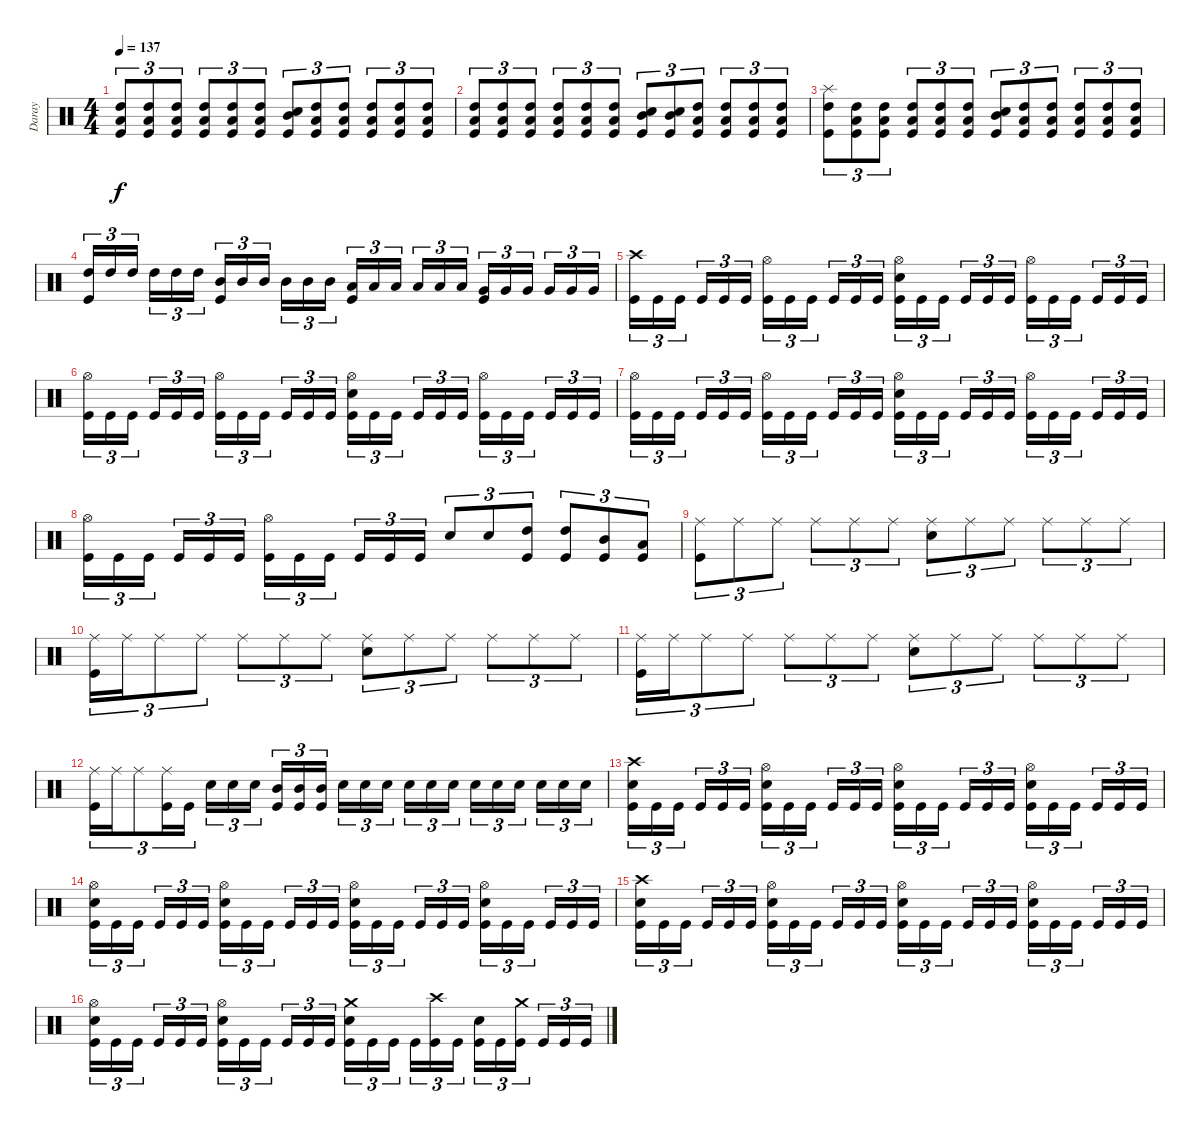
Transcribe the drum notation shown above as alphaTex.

\track ("Daray" "Daray") {instrument percussion}
\staff {score}
\articulation defaults
\ts (4 4)
\tempo 137
\clef neutral
\ks c
("High Tom (hit)" "Low Tom (hit)" "Kick (hit)").8{tu (3 2) dy f} ("High Tom (hit)" "Low Tom (hit)" "Kick (hit)").8{tu (3 2)} ("High Tom (hit)" "Low Tom (hit)" "Kick (hit)").8{tu (3 2)} ("High Tom (hit)" "Low Tom (hit)" "Kick (hit)").8{tu (3 2)} ("High Tom (hit)" "Low Tom (hit)" "Kick (hit)").8{tu (3 2)} ("High Tom (hit)" "Low Tom (hit)" "Kick (hit)").8{tu (3 2)} ("Mid Tom (hit)" "Electric Snare (hit)" "Kick (hit)").8{tu (3 2)} ("High Tom (hit)" "Low Tom (hit)" "Kick (hit)").8{tu (3 2)} ("High Tom (hit)" "Low Tom (hit)" "Kick (hit)").8{tu (3 2)} ("High Tom (hit)" "Low Tom (hit)" "Kick (hit)").8{tu (3 2)} ("High Tom (hit)" "Low Tom (hit)" "Kick (hit)").8{tu (3 2)} ("High Tom (hit)" "Low Tom (hit)" "Kick (hit)").8{tu (3 2)} |
("High Tom (hit)" "Low Tom (hit)" "Kick (hit)").8{tu (3 2)} ("High Tom (hit)" "Low Tom (hit)" "Kick (hit)").8{tu (3 2)} ("High Tom (hit)" "Low Tom (hit)" "Kick (hit)").8{tu (3 2)} ("High Tom (hit)" "Low Tom (hit)" "Kick (hit)").8{tu (3 2)} ("High Tom (hit)" "Low Tom (hit)" "Kick (hit)").8{tu (3 2)} ("High Tom (hit)" "Low Tom (hit)" "Kick (hit)").8{tu (3 2)} ("Mid Tom (hit)" "Electric Snare (hit)" "Kick (hit)").8{tu (3 2)} ("Mid Tom (hit)" "Electric Snare (hit)" "Kick (hit)").8{tu (3 2)} ("High Tom (hit)" "Low Tom (hit)" "Kick (hit)").8{tu (3 2)} ("High Tom (hit)" "Low Tom (hit)" "Kick (hit)").8{tu (3 2)} ("High Tom (hit)" "Low Tom (hit)" "Kick (hit)").8{tu (3 2)} ("High Tom (hit)" "Low Tom (hit)" "Kick (hit)").8{tu (3 2)} |
("Splash (hit)" "High Tom (hit)" "Kick (hit)").8{tu (3 2)} ("High Tom (hit)" "Low Tom (hit)" "Kick (hit)").8{tu (3 2)} ("High Tom (hit)" "Low Tom (hit)" "Kick (hit)").8{tu (3 2)} ("High Tom (hit)" "Low Tom (hit)" "Kick (hit)").8{tu (3 2)} ("High Tom (hit)" "Low Tom (hit)" "Kick (hit)").8{tu (3 2)} ("High Tom (hit)" "Low Tom (hit)" "Kick (hit)").8{tu (3 2)} ("Mid Tom (hit)" "Electric Snare (hit)" "Kick (hit)").8{tu (3 2)} ("High Tom (hit)" "Low Tom (hit)" "Kick (hit)").8{tu (3 2)} ("High Tom (hit)" "Low Tom (hit)" "Kick (hit)").8{tu (3 2)} ("High Tom (hit)" "Low Tom (hit)" "Kick (hit)").8{tu (3 2)} ("High Tom (hit)" "Low Tom (hit)" "Kick (hit)").8{tu (3 2)} ("High Tom (hit)" "Low Tom (hit)" "Kick (hit)").8{tu (3 2)} |
("High Tom (hit)" "Kick (hit)").16{tu (3 2)} "High Tom (hit)".16{tu (3 2)} "High Tom (hit)".16{tu (3 2) beam splitsecondary} "High Tom (hit)".16{tu (3 2)} "High Tom (hit)".16{tu (3 2)} "High Tom (hit)".16{tu (3 2)} ("Mid Tom (hit)" "Kick (hit)").16{tu (3 2)} "Mid Tom (hit)".16{tu (3 2)} "Mid Tom (hit)".16{tu (3 2) beam splitsecondary} "Mid Tom (hit)".16{tu (3 2)} "Mid Tom (hit)".16{tu (3 2)} "Mid Tom (hit)".16{tu (3 2)} ("Low Tom (hit)" "Kick (hit)").16{tu (3 2)} "Low Tom (hit)".16{tu (3 2)} "Low Tom (hit)".16{tu (3 2) beam splitsecondary} "Low Tom (hit)".16{tu (3 2)} "Low Tom (hit)".16{tu (3 2)} "Low Tom (hit)".16{tu (3 2)} ("Very Low Tom (hit)" "Kick (hit)").16{tu (3 2)} "Very Low Tom (hit)".16{tu (3 2)} "Very Low Tom (hit)".16{tu (3 2) beam splitsecondary} "Very Low Tom (hit)".16{tu (3 2)} "Very Low Tom (hit)".16{tu (3 2)} "Very Low Tom (hit)".16{tu (3 2)} |
("Crash high (hit)" "Kick (hit)").16{tu (3 2)} "Kick (hit)".16{tu (3 2)} "Kick (hit)".16{tu (3 2) beam splitsecondary} "Kick (hit)".16{tu (3 2)} "Kick (hit)".16{tu (3 2)} "Kick (hit)".16{tu (3 2)} ("Hi-Hat (open)" "Kick (hit)").16{tu (3 2)} "Kick (hit)".16{tu (3 2)} "Kick (hit)".16{tu (3 2) beam splitsecondary} "Kick (hit)".16{tu (3 2)} "Kick (hit)".16{tu (3 2)} "Kick (hit)".16{tu (3 2)} ("Hi-Hat (open)" "Electric Snare (hit)" "Kick (hit)").16{tu (3 2)} "Kick (hit)".16{tu (3 2)} "Kick (hit)".16{tu (3 2) beam splitsecondary} "Kick (hit)".16{tu (3 2)} "Kick (hit)".16{tu (3 2)} "Kick (hit)".16{tu (3 2)} ("Hi-Hat (open)" "Kick (hit)").16{tu (3 2)} "Kick (hit)".16{tu (3 2)} "Kick (hit)".16{tu (3 2) beam splitsecondary} "Kick (hit)".16{tu (3 2)} "Kick (hit)".16{tu (3 2)} "Kick (hit)".16{tu (3 2)} |
("Hi-Hat (open)" "Kick (hit)").16{tu (3 2)} "Kick (hit)".16{tu (3 2)} "Kick (hit)".16{tu (3 2) beam splitsecondary} "Kick (hit)".16{tu (3 2)} "Kick (hit)".16{tu (3 2)} "Kick (hit)".16{tu (3 2)} ("Hi-Hat (open)" "Kick (hit)").16{tu (3 2)} "Kick (hit)".16{tu (3 2)} "Kick (hit)".16{tu (3 2) beam splitsecondary} "Kick (hit)".16{tu (3 2)} "Kick (hit)".16{tu (3 2)} "Kick (hit)".16{tu (3 2)} ("Hi-Hat (open)" "Electric Snare (hit)" "Kick (hit)").16{tu (3 2)} "Kick (hit)".16{tu (3 2)} "Kick (hit)".16{tu (3 2) beam splitsecondary} "Kick (hit)".16{tu (3 2)} "Kick (hit)".16{tu (3 2)} "Kick (hit)".16{tu (3 2)} ("Hi-Hat (open)" "Kick (hit)").16{tu (3 2)} "Kick (hit)".16{tu (3 2)} "Kick (hit)".16{tu (3 2) beam splitsecondary} "Kick (hit)".16{tu (3 2)} "Kick (hit)".16{tu (3 2)} "Kick (hit)".16{tu (3 2)} |
("Hi-Hat (open)" "Kick (hit)").16{tu (3 2)} "Kick (hit)".16{tu (3 2)} "Kick (hit)".16{tu (3 2) beam splitsecondary} "Kick (hit)".16{tu (3 2)} "Kick (hit)".16{tu (3 2)} "Kick (hit)".16{tu (3 2)} ("Hi-Hat (open)" "Kick (hit)").16{tu (3 2)} "Kick (hit)".16{tu (3 2)} "Kick (hit)".16{tu (3 2) beam splitsecondary} "Kick (hit)".16{tu (3 2)} "Kick (hit)".16{tu (3 2)} "Kick (hit)".16{tu (3 2)} ("Hi-Hat (open)" "Electric Snare (hit)" "Kick (hit)").16{tu (3 2)} "Kick (hit)".16{tu (3 2)} "Kick (hit)".16{tu (3 2) beam splitsecondary} "Kick (hit)".16{tu (3 2)} "Kick (hit)".16{tu (3 2)} "Kick (hit)".16{tu (3 2)} ("Hi-Hat (open)" "Kick (hit)").16{tu (3 2)} "Kick (hit)".16{tu (3 2)} "Kick (hit)".16{tu (3 2) beam splitsecondary} "Kick (hit)".16{tu (3 2)} "Kick (hit)".16{tu (3 2)} "Kick (hit)".16{tu (3 2)} |
("Hi-Hat (open)" "Kick (hit)").16{tu (3 2)} "Kick (hit)".16{tu (3 2)} "Kick (hit)".16{tu (3 2) beam splitsecondary} "Kick (hit)".16{tu (3 2)} "Kick (hit)".16{tu (3 2)} "Kick (hit)".16{tu (3 2)} ("Hi-Hat (open)" "Kick (hit)").16{tu (3 2)} "Kick (hit)".16{tu (3 2)} "Kick (hit)".16{tu (3 2) beam splitsecondary} "Kick (hit)".16{tu (3 2)} "Kick (hit)".16{tu (3 2)} "Kick (hit)".16{tu (3 2)} "Electric Snare (hit)".8{tu (3 2)} "Electric Snare (hit)".8{tu (3 2)} ("High Tom (hit)" "Kick (hit)").8{tu (3 2)} ("High Tom (hit)" "Kick (hit)").8{tu (3 2)} ("Mid Tom (hit)" "Kick (hit)").8{tu (3 2)} ("Low Tom (hit)" "Kick (hit)").8{tu (3 2)} |
("Ride (middle)" "Kick (hit)").8{tu (3 2)} "Ride (middle)".8{tu (3 2)} "Ride (middle)".8{tu (3 2)} "Ride (middle)".8{tu (3 2)} "Ride (middle)".8{tu (3 2)} "Ride (middle)".8{tu (3 2)} ("Ride (middle)" "Electric Snare (hit)").8{tu (3 2)} "Ride (middle)".8{tu (3 2)} "Ride (middle)".8{tu (3 2)} "Ride (middle)".8{tu (3 2)} "Ride (middle)".8{tu (3 2)} "Ride (middle)".8{tu (3 2)} |
("Ride (middle)" "Kick (hit)").16{tu (3 2)} "Ride (middle)".16{tu (3 2)} "Ride (middle)".8{tu (3 2)} "Ride (middle)".8{tu (3 2)} "Ride (middle)".8{tu (3 2)} "Ride (middle)".8{tu (3 2)} "Ride (middle)".8{tu (3 2)} ("Ride (middle)" "Electric Snare (hit)").8{tu (3 2)} "Ride (middle)".8{tu (3 2)} "Ride (middle)".8{tu (3 2)} "Ride (middle)".8{tu (3 2)} "Ride (middle)".8{tu (3 2)} "Ride (middle)".8{tu (3 2)} |
("Ride (middle)" "Kick (hit)").16{tu (3 2)} "Ride (middle)".16{tu (3 2)} "Ride (middle)".8{tu (3 2)} "Ride (middle)".8{tu (3 2)} "Ride (middle)".8{tu (3 2)} "Ride (middle)".8{tu (3 2)} "Ride (middle)".8{tu (3 2)} ("Ride (middle)" "Electric Snare (hit)").8{tu (3 2)} "Ride (middle)".8{tu (3 2)} "Ride (middle)".8{tu (3 2)} "Ride (middle)".8{tu (3 2)} "Ride (middle)".8{tu (3 2)} "Ride (middle)".8{tu (3 2)} |
("Ride (middle)" "Kick (hit)").16{tu (3 2)} "Ride (middle)".16{tu (3 2)} "Ride (middle)".8{tu (3 2)} ("Ride (middle)" "Kick (hit)").16{tu (3 2)} "Kick (hit)".16{tu (3 2)} "Electric Snare (hit)".16{tu (3 2)} "Electric Snare (hit)".16{tu (3 2)} "Electric Snare (hit)".16{tu (3 2) beam splitsecondary} ("Mid Tom (hit)" "Kick (hit)").16{tu (3 2)} ("Mid Tom (hit)" "Kick (hit)").16{tu (3 2)} ("Mid Tom (hit)" "Kick (hit)").16{tu (3 2)} "Electric Snare (hit)".16{tu (3 2)} "Electric Snare (hit)".16{tu (3 2)} "Electric Snare (hit)".16{tu (3 2) beam splitsecondary} "Electric Snare (hit)".16{tu (3 2)} "Electric Snare (hit)".16{tu (3 2)} "Electric Snare (hit)".16{tu (3 2)} "Electric Snare (hit)".16{tu (3 2)} "Electric Snare (hit)".16{tu (3 2)} "Electric Snare (hit)".16{tu (3 2) beam splitsecondary} "Electric Snare (hit)".16{tu (3 2)} "Electric Snare (hit)".16{tu (3 2)} "Electric Snare (hit)".16{tu (3 2)} |
("Crash high (hit)" "Electric Snare (hit)" "Kick (hit)").16{tu (3 2)} "Kick (hit)".16{tu (3 2)} "Kick (hit)".16{tu (3 2) beam splitsecondary} "Kick (hit)".16{tu (3 2)} "Kick (hit)".16{tu (3 2)} "Kick (hit)".16{tu (3 2)} ("Hi-Hat (open)" "Electric Snare (hit)" "Kick (hit)").16{tu (3 2)} "Kick (hit)".16{tu (3 2)} "Kick (hit)".16{tu (3 2) beam splitsecondary} "Kick (hit)".16{tu (3 2)} "Kick (hit)".16{tu (3 2)} "Kick (hit)".16{tu (3 2)} ("Hi-Hat (open)" "Electric Snare (hit)" "Kick (hit)").16{tu (3 2)} "Kick (hit)".16{tu (3 2)} "Kick (hit)".16{tu (3 2) beam splitsecondary} "Kick (hit)".16{tu (3 2)} "Kick (hit)".16{tu (3 2)} "Kick (hit)".16{tu (3 2)} ("Hi-Hat (open)" "Electric Snare (hit)" "Kick (hit)").16{tu (3 2)} "Kick (hit)".16{tu (3 2)} "Kick (hit)".16{tu (3 2) beam splitsecondary} "Kick (hit)".16{tu (3 2)} "Kick (hit)".16{tu (3 2)} "Kick (hit)".16{tu (3 2)} |
("Hi-Hat (open)" "Electric Snare (hit)" "Kick (hit)").16{tu (3 2)} "Kick (hit)".16{tu (3 2)} "Kick (hit)".16{tu (3 2) beam splitsecondary} "Kick (hit)".16{tu (3 2)} "Kick (hit)".16{tu (3 2)} "Kick (hit)".16{tu (3 2)} ("Hi-Hat (open)" "Electric Snare (hit)" "Kick (hit)").16{tu (3 2)} "Kick (hit)".16{tu (3 2)} "Kick (hit)".16{tu (3 2) beam splitsecondary} "Kick (hit)".16{tu (3 2)} "Kick (hit)".16{tu (3 2)} "Kick (hit)".16{tu (3 2)} ("Hi-Hat (open)" "Electric Snare (hit)" "Kick (hit)").16{tu (3 2)} "Kick (hit)".16{tu (3 2)} "Kick (hit)".16{tu (3 2) beam splitsecondary} "Kick (hit)".16{tu (3 2)} "Kick (hit)".16{tu (3 2)} "Kick (hit)".16{tu (3 2)} ("Hi-Hat (open)" "Electric Snare (hit)" "Kick (hit)").16{tu (3 2)} "Kick (hit)".16{tu (3 2)} "Kick (hit)".16{tu (3 2) beam splitsecondary} "Kick (hit)".16{tu (3 2)} "Kick (hit)".16{tu (3 2)} "Kick (hit)".16{tu (3 2)} |
("Crash high (hit)" "Electric Snare (hit)" "Kick (hit)").16{tu (3 2)} "Kick (hit)".16{tu (3 2)} "Kick (hit)".16{tu (3 2) beam splitsecondary} "Kick (hit)".16{tu (3 2)} "Kick (hit)".16{tu (3 2)} "Kick (hit)".16{tu (3 2)} ("Hi-Hat (open)" "Electric Snare (hit)" "Kick (hit)").16{tu (3 2)} "Kick (hit)".16{tu (3 2)} "Kick (hit)".16{tu (3 2) beam splitsecondary} "Kick (hit)".16{tu (3 2)} "Kick (hit)".16{tu (3 2)} "Kick (hit)".16{tu (3 2)} ("Hi-Hat (open)" "Electric Snare (hit)" "Kick (hit)").16{tu (3 2)} "Kick (hit)".16{tu (3 2)} "Kick (hit)".16{tu (3 2) beam splitsecondary} "Kick (hit)".16{tu (3 2)} "Kick (hit)".16{tu (3 2)} "Kick (hit)".16{tu (3 2)} ("Hi-Hat (open)" "Electric Snare (hit)" "Kick (hit)").16{tu (3 2)} "Kick (hit)".16{tu (3 2)} "Kick (hit)".16{tu (3 2) beam splitsecondary} "Kick (hit)".16{tu (3 2)} "Kick (hit)".16{tu (3 2)} "Kick (hit)".16{tu (3 2)} |
("Hi-Hat (open)" "Electric Snare (hit)" "Kick (hit)").16{tu (3 2)} "Kick (hit)".16{tu (3 2)} "Kick (hit)".16{tu (3 2) beam splitsecondary} "Kick (hit)".16{tu (3 2)} "Kick (hit)".16{tu (3 2)} "Kick (hit)".16{tu (3 2)} ("Hi-Hat (open)" "Electric Snare (hit)" "Kick (hit)").16{tu (3 2)} "Kick (hit)".16{tu (3 2)} "Kick (hit)".16{tu (3 2) beam splitsecondary} "Kick (hit)".16{tu (3 2)} "Kick (hit)".16{tu (3 2)} "Kick (hit)".16{tu (3 2)} ("Crash medium (hit)" "Electric Snare (hit)" "Kick (hit)").16{tu (3 2)} "Kick (hit)".16{tu (3 2)} "Kick (hit)".16{tu (3 2) beam splitsecondary} "Kick (hit)".16{tu (3 2)} ("Crash high (hit)" "Kick (hit)").16{tu (3 2)} "Kick (hit)".16{tu (3 2)} ("Electric Snare (hit)" "Kick (hit)").16{tu (3 2)} "Kick (hit)".16{tu (3 2)} ("Crash medium (hit)" "Kick (hit)").16{tu (3 2) beam splitsecondary} "Kick (hit)".16{tu (3 2)} "Kick (hit)".16{tu (3 2)} "Kick (hit)".16{tu (3 2)}
